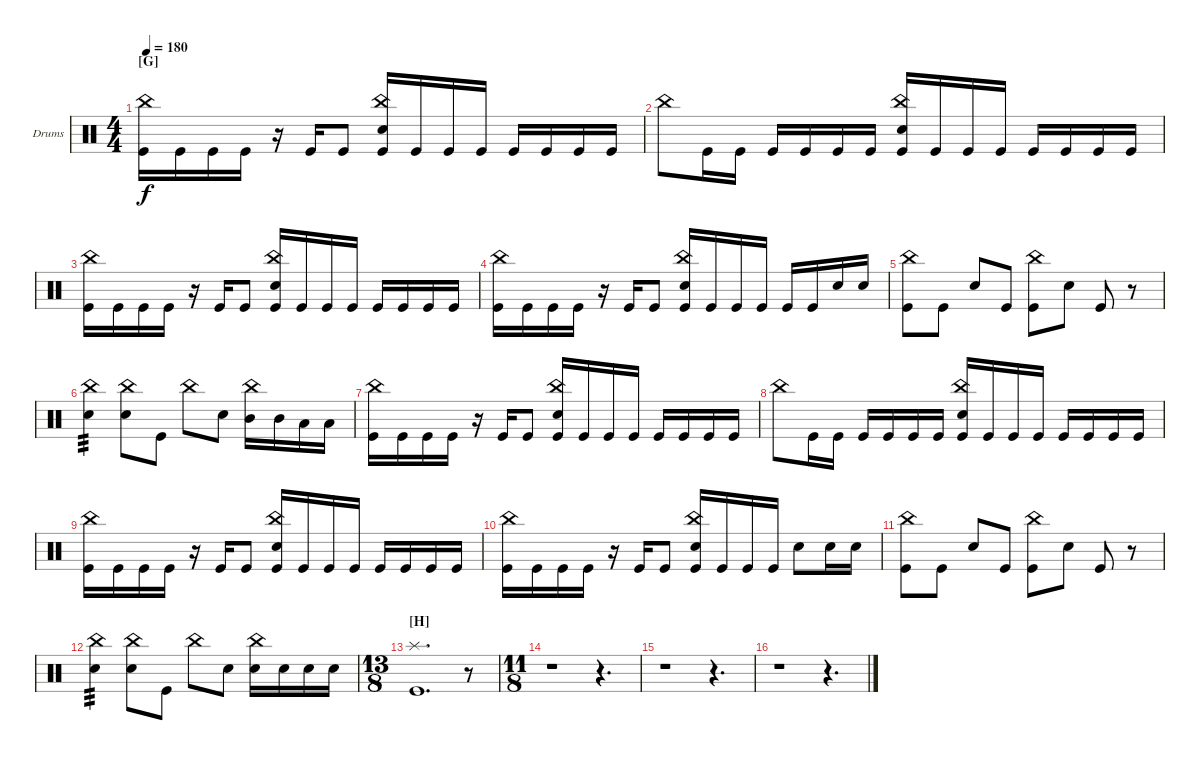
\defaultSystemsLayout 4
\bracketExtendMode groupsimilarinstruments
\firstSystemTrackNameOrientation horizontal
\otherSystemsTrackNameOrientation horizontal
\track ("Drumkit" "Drums") {instrument percussion}
\staff {score}
\articulation defaults
\ts (4 4)
\section ("G" "")
\tempo 180
\clef neutral
\ks c
("Kick (hit)" "China (hit)").16{dy f} "Kick (hit)".16 "Kick (hit)".16 "Kick (hit)".16 r.16 "Kick (hit)".16 "Kick (hit)".8 ("Kick (hit)" "China (hit)" "Snare (hit) 2").16 "Kick (hit)".16 "Kick (hit)".16 "Kick (hit)".16 "Kick (hit)".16 "Kick (hit)".16 "Kick (hit)".16 "Kick (hit)".16 |
"China (hit)".8 "Kick (hit)".16 "Kick (hit)".16 "Kick (hit)".16 "Kick (hit)".16 "Kick (hit)".16 "Kick (hit)".16 ("Kick (hit)" "China (hit)" "Snare (hit) 2").16 "Kick (hit)".16 "Kick (hit)".16 "Kick (hit)".16 "Kick (hit)".16 "Kick (hit)".16 "Kick (hit)".16 "Kick (hit)".16 |
("Kick (hit)" "China (hit)").16 "Kick (hit)".16 "Kick (hit)".16 "Kick (hit)".16 r.16 "Kick (hit)".16 "Kick (hit)".8 ("Kick (hit)" "China (hit)" "Snare (hit) 2").16 "Kick (hit)".16 "Kick (hit)".16 "Kick (hit)".16 "Kick (hit)".16 "Kick (hit)".16 "Kick (hit)".16 "Kick (hit)".16 |
("China (hit)" "Kick (hit)").16 "Kick (hit)".16 "Kick (hit)".16 "Kick (hit)".16 r.16 "Kick (hit)".16 "Kick (hit)".8 ("Kick (hit)" "China (hit)" "Snare (hit) 2").16 "Kick (hit)".16 "Kick (hit)".16 "Kick (hit)".16 "Kick (hit)".16 "Kick (hit)".16 "Snare (hit) 2".16 "Snare (hit) 2".16 |
("Kick (hit)" "China (hit)").8 "Kick (hit)".8 "Snare (hit) 2".8 "Kick (hit)".8 ("Kick (hit)" "China (hit)").8 "Snare (hit) 2".8 "Kick (hit)".8 r.8 |
("Snare (hit) 2" "China (hit)").4{tp 3} ("Snare (hit) 2" "China (hit)").8 "Kick (hit)".8 "China (hit)".8 "Snare (hit) 2".8 ("China (hit)" "Mid Tom (hit)").16 "Mid Tom (hit)".16 "Low Tom (hit)".16 "Low Tom (hit)".16 |
("Kick (hit)" "China (hit)").16 "Kick (hit)".16 "Kick (hit)".16 "Kick (hit)".16 r.16 "Kick (hit)".16 "Kick (hit)".8 ("Kick (hit)" "China (hit)" "Snare (hit) 2").16 "Kick (hit)".16 "Kick (hit)".16 "Kick (hit)".16 "Kick (hit)".16 "Kick (hit)".16 "Kick (hit)".16 "Kick (hit)".16 |
"China (hit)".8 "Kick (hit)".16 "Kick (hit)".16 "Kick (hit)".16 "Kick (hit)".16 "Kick (hit)".16 "Kick (hit)".16 ("Kick (hit)" "China (hit)" "Snare (hit) 2").16 "Kick (hit)".16 "Kick (hit)".16 "Kick (hit)".16 "Kick (hit)".16 "Kick (hit)".16 "Kick (hit)".16 "Kick (hit)".16 |
("Kick (hit)" "China (hit)").16 "Kick (hit)".16 "Kick (hit)".16 "Kick (hit)".16 r.16 "Kick (hit)".16 "Kick (hit)".8 ("Kick (hit)" "China (hit)" "Snare (hit) 2").16 "Kick (hit)".16 "Kick (hit)".16 "Kick (hit)".16 "Kick (hit)".16 "Kick (hit)".16 "Kick (hit)".16 "Kick (hit)".16 |
("China (hit)" "Kick (hit)").16 "Kick (hit)".16 "Kick (hit)".16 "Kick (hit)".16 r.16 "Kick (hit)".16 "Kick (hit)".8 ("Kick (hit)" "China (hit)" "Snare (hit) 2").16 "Kick (hit)".16 "Kick (hit)".16 "Kick (hit)".16 "Snare (hit) 2".8 "Snare (hit) 2".16 "Snare (hit) 2".16 |
("Kick (hit)" "China (hit)").8 "Kick (hit)".8 "Snare (hit) 2".8 "Kick (hit)".8 ("Kick (hit)" "China (hit)").8 "Snare (hit) 2".8 "Kick (hit)".8 r.8 |
("Snare (hit) 2" "China (hit)").4{tp 3} ("Snare (hit) 2" "China (hit)").8 "Kick (hit)".8 "China (hit)".8 "Snare (hit) 2".8 ("China (hit)" "Snare (hit) 2").16 "Snare (hit) 2".16 "Snare (hit) 2".16 "Snare (hit) 2".16 |
\ts (13 8)
\section ("H" "")
("Kick (hit)" "Splash (hit)").1{d} r.8 |
\ts (11 8)
r.1 r.4{d} |
r.1 r.4{d} |
r.1 r.4{d}
